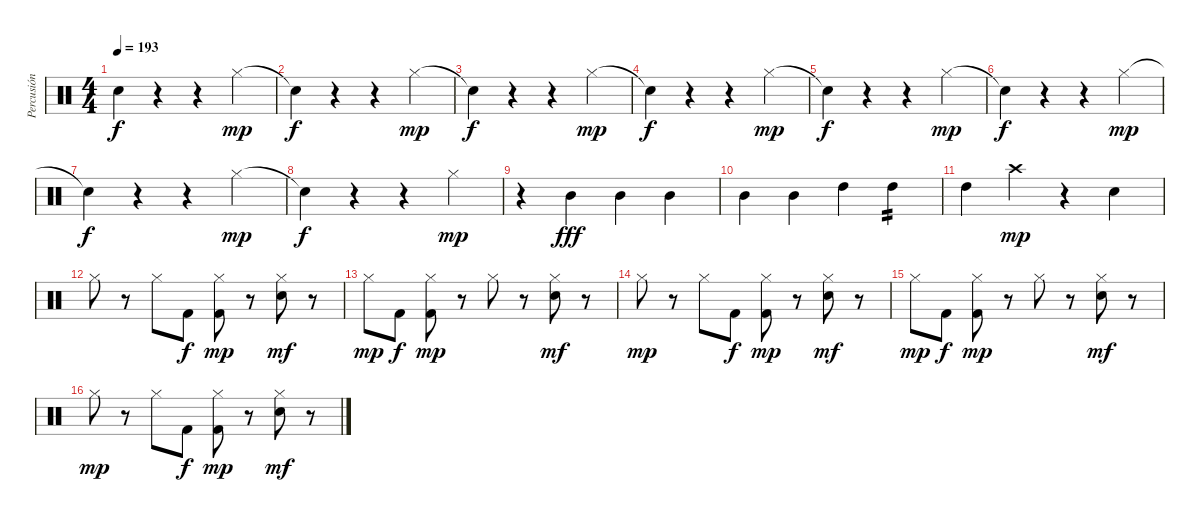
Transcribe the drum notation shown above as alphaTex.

\track ("Percusión" "Percusión") {instrument percussion}
\staff {score}
\articulation defaults
\ts (4 4)
\tempo 193
\clef neutral
\ks c "Snare (hit)"{t}.4{dy f}
r.4 r.4 "Hi-Hat (closed)".4{dy mp} |
"Snare (hit)"{t}.4{dy f} r.4 r.4 "Hi-Hat (closed)".4{dy mp} |
"Snare (hit)"{t}.4{dy f} r.4 r.4 "Hi-Hat (closed)".4{dy mp} |
"Snare (hit)"{t}.4{dy f} r.4 r.4 "Hi-Hat (closed)".4{dy mp} |
"Snare (hit)"{t}.4{dy f} r.4 r.4 "Hi-Hat (closed)".4{dy mp} |
"Snare (hit)"{t}.4{dy f} r.4 r.4 "Hi-Hat (closed)".4{dy mp} |
"Snare (hit)"{t}.4{dy f} r.4 r.4 "Hi-Hat (closed)".4{dy mp} |
"Snare (hit)"{t}.4{dy f} r.4 r.4 "Hi-Hat (closed)".4{dy mp} |
r.4 "Mid Tom (hit)".4{dy fff} "Mid Tom (hit)".4 "Mid Tom (hit)".4 |
"Mid Tom (hit)".4 "Mid Tom (hit)".4 "High Tom (hit)".4 "High Tom (hit)".4{tp 2} |
"High Tom (hit)".4 "Crash high (hit)".4{dy mp} r.4 "Snare (hit) 2".4 |
"Hi-Hat (closed)".8 r.8 "Hi-Hat (closed)".8 "Kick (hit) 2".8{dy f} ("Hi-Hat (closed)" "Kick (hit) 2").8{dy mp} r.8 ("Hi-Hat (closed)" "Electric Snare (hit)").8{dy mf} r.8 |
"Hi-Hat (closed)".8{dy mp} "Kick (hit) 2".8{dy f} ("Hi-Hat (closed)" "Kick (hit) 2").8{dy mp} r.8 "Hi-Hat (closed)".8 r.8 ("Hi-Hat (closed)" "Electric Snare (hit)").8{dy mf} r.8 |
"Hi-Hat (closed)".8{dy mp} r.8 "Hi-Hat (closed)".8 "Kick (hit) 2".8{dy f} ("Hi-Hat (closed)" "Kick (hit) 2").8{dy mp} r.8 ("Hi-Hat (closed)" "Electric Snare (hit)").8{dy mf} r.8 |
"Hi-Hat (closed)".8{dy mp} "Kick (hit) 2".8{dy f} ("Hi-Hat (closed)" "Kick (hit) 2").8{dy mp} r.8 "Hi-Hat (closed)".8 r.8 ("Hi-Hat (closed)" "Electric Snare (hit)").8{dy mf} r.8 |
"Hi-Hat (closed)".8{dy mp} r.8 "Hi-Hat (closed)".8 "Kick (hit) 2".8{dy f} ("Hi-Hat (closed)" "Kick (hit) 2").8{dy mp} r.8 ("Hi-Hat (closed)" "Electric Snare (hit)").8{dy mf} r.8
